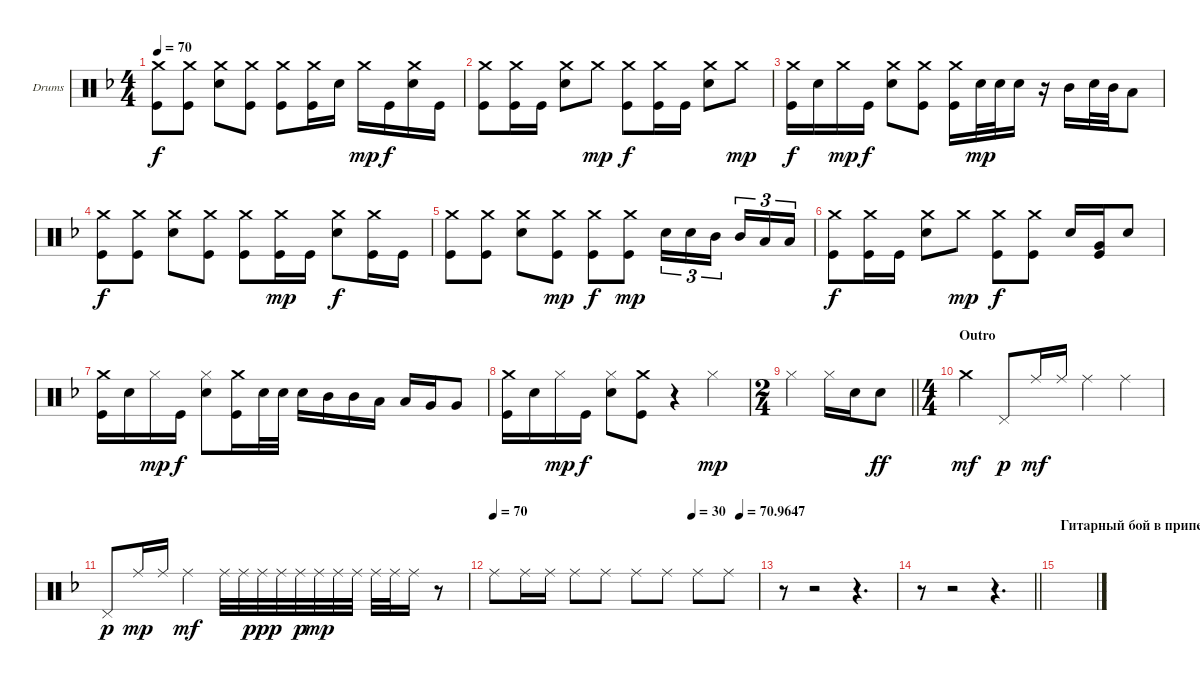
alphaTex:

\bracketExtendMode groupsimilarinstruments
\firstSystemTrackNameOrientation horizontal
\otherSystemsTrackNameOrientation horizontal
\track ("Drumkit" "Drums") {instrument percussion}
\staff {score}
\articulation defaults
\ts (4 4)
\tempo 70
\clef neutral
\ks dminor
("Crash medium (hit)" "Kick (hit)").8{dy f} ("Kick (hit)" "Crash medium (hit)").8 ("Snare (hit) 2" "Crash medium (hit)").8 ("Kick (hit)" "Crash medium (hit)").8 ("Kick (hit)" "Crash medium (hit)").8 ("Kick (hit)" "Crash medium (hit)").16 "Snare (hit) 2".16 "Crash medium (hit)".16{dy mp} "Kick (hit)".16{dy f} ("Snare (hit) 2" "Crash medium (hit)").16 "Kick (hit)".16 |
("Crash medium (hit)" "Kick (hit)").8 ("Kick (hit)" "Crash medium (hit)").16 "Kick (hit)".16 ("Snare (hit) 2" "Crash medium (hit)").8 "Crash medium (hit)".8{dy mp} ("Crash medium (hit)" "Kick (hit)").8{dy f} ("Kick (hit)" "Crash medium (hit)").16 "Kick (hit)".16 ("Snare (hit) 2" "Crash medium (hit)").8 "Crash medium (hit)".8{dy mp} |
("Kick (hit)" "Crash medium (hit)").16{dy f} "Snare (hit) 2".16 "Crash medium (hit)".16{dy mp} "Kick (hit)".16{dy f} ("Snare (hit) 2" "Crash medium (hit)").8 ("Kick (hit)" "Crash medium (hit)").8 ("Kick (hit)" "Crash medium (hit)").16 "Snare (hit) 2".32{dy mp} "Snare (hit) 2".32 "Snare (hit) 2".16 r.16 "Mid Tom (hit)".16 "Snare (hit) 2".32 "Mid Tom (hit)".32 "Low Tom (hit)".8 |
("Kick (hit)" "Crash medium (hit)").8{dy f} ("Kick (hit)" "Crash medium (hit)").8 ("Snare (hit) 2" "Crash medium (hit)").8 ("Kick (hit)" "Crash medium (hit)").8 ("Kick (hit)" "Crash medium (hit)").8 ("Kick (hit)" "Crash medium (hit)").16{dy mp} "Kick (hit)".16 ("Snare (hit) 2" "Crash medium (hit)").8{dy f} ("Kick (hit)" "Crash medium (hit)").16 "Kick (hit)".16 |
("Crash medium (hit)" "Kick (hit)").8 ("Kick (hit)" "Crash medium (hit)").8 ("Snare (hit) 2" "Crash medium (hit)").8 ("Kick (hit)" "Crash medium (hit)").8{dy mp} ("Kick (hit)" "Crash medium (hit)").8{dy f} ("Kick (hit)" "Crash medium (hit)").8{dy mp} "Snare (hit) 2".16{tu (3 2)} "Snare (hit) 2".16{tu (3 2)} "Mid Tom (hit)".16{tu (3 2)} "Mid Tom (hit)".16{tu (3 2)} "Low Tom (hit)".16{tu (3 2)} "Low Tom (hit)".16{tu (3 2)} |
("Crash medium (hit)" "Kick (hit)").8{dy f} ("Kick (hit)" "Crash medium (hit)").16 "Kick (hit)".16 ("Snare (hit) 2" "Crash medium (hit)").8 "Crash medium (hit)".8{dy mp} ("Kick (hit)" "Crash medium (hit)").8{dy f} ("Kick (hit)" "Crash medium (hit)").8 "Snare (hit) 2".16 ("Kick (hit)" "Very Low Tom (hit)").16 "Snare (hit) 2".8 |
("Kick (hit)" "Crash medium (hit)").16 "Snare (hit) 2".16 "Hi-Hat (closed)".16{dy mp} "Kick (hit)".16{dy f} ("Snare (hit) 2" "Hi-Hat (closed)").8 ("Kick (hit)" "Crash medium (hit)").16 "Snare (hit) 2".32 "Snare (hit) 2".32 "Snare (hit) 2".16 "Mid Tom (hit)".16 "Mid Tom (hit)".16 "Low Tom (hit)".16 "Low Tom (hit)".16 "Very Low Tom (hit)".16 "Very Low Tom (hit)".8 |
("Kick (hit)" "Crash medium (hit)").16 "Snare (hit) 2".16 "Hi-Hat (closed)".16{dy mp} "Kick (hit)".16{dy f} ("Snare (hit) 2" "Hi-Hat (closed)").8 ("Kick (hit)" "Crash medium (hit)").8 r.4 "Hi-Hat (closed)".4{dy mp} |
\ts (2 4)
\beaming (8 2 2)
\barLineRight lightlight "Hi-Hat (closed)".4 "Hi-Hat (closed)".16 "Snare (hit) 2".16 "Snare (hit) 2".8{dy ff}
|
\ts (4 4)
\beaming (8 2 2 2 2)
\section ("" "Outro")
"Crash medium (hit)".4{dy mf} "Pedal Hi-Hat (hit)".8{dy p} "Ride (middle)".16{dy mf} "Ride (middle)".16 "Ride (middle)".4 "Ride (middle)".4 |
"Pedal Hi-Hat (hit)".8{dy p} "Ride (middle)".16{dy mp} "Ride (middle)".16 "Ride (middle)".4{dy mf} "Ride (middle)".32 "Ride (middle)".32 "Ride (middle)".32{dy ppp} "Ride (middle)".32 "Ride (middle)".32{dy p} "Ride (middle)".32{dy mp} "Ride (middle)".32 "Ride (middle)".32 "Ride (middle)".32 "Ride (middle)".32 "Ride (middle)".16 r.8 |
\tempo 70
\tempo (30 0.75)
\tempo (70.9647 0.93125)
"Ride (middle)".8 "Ride (middle)".16 "Ride (middle)".16 "Ride (middle)".8 "Ride (middle)".8 "Ride (middle)".8 "Ride (middle)".8 "Ride (middle)".8 "Ride (middle)".8 |
r.8 r.2 r.4{d} |
\barLineRight lightlight
r.8 r.2 r.4{d} |
\section ("" "Гитарный бой в припеве")
